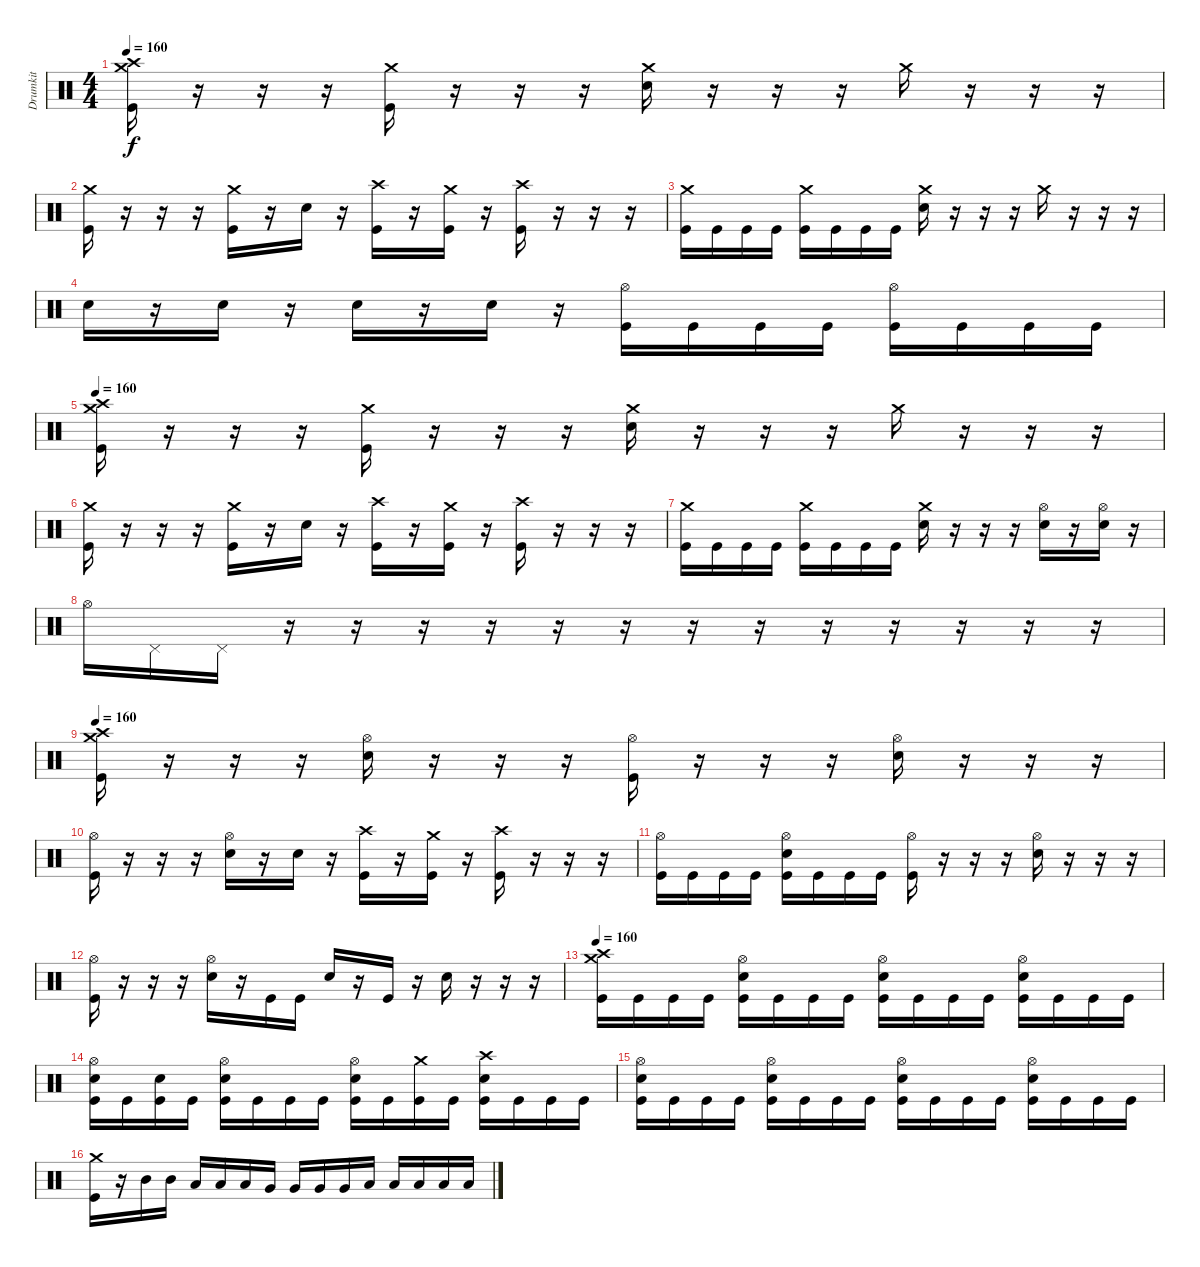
\track ("Drumkit" "Drumkit") {instrument percussion}
\staff {score}
\articulation defaults
\ts (4 4)
\tempo 160
\clef neutral
\ks c
("Crash medium (hit)" "Crash high (hit)" "Kick (hit)").16{dy f} r.16 r.16 r.16 ("Crash medium (hit)" "Kick (hit)").16 r.16 r.16 r.16 ("Crash medium (hit)" "Snare (hit) 2").16 r.16 r.16 r.16 "Crash medium (hit)".16 r.16 r.16 r.16 |
("Crash medium (hit)" "Kick (hit)").16 r.16 r.16 r.16 ("Crash medium (hit)" "Kick (hit)").16 r.16 "Snare (hit) 2".16 r.16 ("Crash high (hit)" "Kick (hit)").16 r.16 ("Crash medium (hit)" "Kick (hit)").16 r.16 ("Crash high (hit)" "Kick (hit)").16 r.16 r.16 r.16 |
("Crash medium (hit)" "Kick (hit)").16 "Kick (hit)".16 "Kick (hit)".16 "Kick (hit)".16 ("Crash medium (hit)" "Kick (hit)").16 "Kick (hit)".16 "Kick (hit)".16 "Kick (hit)".16 ("Crash medium (hit)" "Snare (hit) 2").16 r.16 r.16 r.16 "Crash medium (hit)".16 r.16 r.16 r.16 |
"Snare (hit) 2".16 r.16 "Snare (hit) 2".16 r.16 "Snare (hit) 2".16 r.16 "Snare (hit) 2".16 r.16 ("Hi-Hat (open)" "Kick (hit)").16 "Kick (hit)".16 "Kick (hit)".16 "Kick (hit)".16 ("Hi-Hat (open)" "Kick (hit)").16 "Kick (hit)".16 "Kick (hit)".16 "Kick (hit)".16 |
\tempo 160
("Crash medium (hit)" "Crash high (hit)" "Kick (hit)").16 r.16 r.16 r.16 ("Crash medium (hit)" "Kick (hit)").16 r.16 r.16 r.16 ("Crash medium (hit)" "Snare (hit) 2").16 r.16 r.16 r.16 "Crash medium (hit)".16 r.16 r.16 r.16 |
("Crash medium (hit)" "Kick (hit)").16 r.16 r.16 r.16 ("Crash medium (hit)" "Kick (hit)").16 r.16 "Snare (hit) 2".16 r.16 ("Crash high (hit)" "Kick (hit)").16 r.16 ("Crash medium (hit)" "Kick (hit)").16 r.16 ("Crash high (hit)" "Kick (hit)").16 r.16 r.16 r.16 |
("Crash medium (hit)" "Kick (hit)").16 "Kick (hit)".16 "Kick (hit)".16 "Kick (hit)".16 ("Crash medium (hit)" "Kick (hit)").16 "Kick (hit)".16 "Kick (hit)".16 "Kick (hit)".16 ("Crash medium (hit)" "Snare (hit) 2").16 r.16 r.16 r.16 ("Hi-Hat (open)" "Snare (hit) 2").16 r.16 ("Hi-Hat (open)" "Snare (hit) 2").16 r.16 |
"Hi-Hat (open)".16 "Pedal Hi-Hat (hit)".16 "Pedal Hi-Hat (hit)".16 r.16 r.16 r.16 r.16 r.16 r.16 r.16 r.16 r.16 r.16 r.16 r.16 r.16 |
\tempo 160
("Crash medium (hit)" "Crash high (hit)" "Kick (hit)").16 r.16 r.16 r.16 ("Hi-Hat (open)" "Snare (hit) 2").16 r.16 r.16 r.16 ("Hi-Hat (open)" "Kick (hit)").16 r.16 r.16 r.16 ("Hi-Hat (open)" "Snare (hit) 2").16 r.16 r.16 r.16 |
("Hi-Hat (open)" "Kick (hit)").16 r.16 r.16 r.16 ("Hi-Hat (open)" "Snare (hit) 2").16 r.16 "Snare (hit) 2".16 r.16 ("Crash high (hit)" "Kick (hit)").16 r.16 ("Crash medium (hit)" "Kick (hit)").16 r.16 ("Crash high (hit)" "Kick (hit)").16 r.16 r.16 r.16 |
("Hi-Hat (open)" "Kick (hit)").16 "Kick (hit)".16 "Kick (hit)".16 "Kick (hit)".16 ("Hi-Hat (open)" "Snare (hit) 2" "Kick (hit)").16 "Kick (hit)".16 "Kick (hit)".16 "Kick (hit)".16 ("Hi-Hat (open)" "Kick (hit)").16 r.16 r.16 r.16 ("Hi-Hat (open)" "Snare (hit) 2").16 r.16 r.16 r.16 |
("Hi-Hat (open)" "Kick (hit)").16 r.16 r.16 r.16 ("Hi-Hat (open)" "Snare (hit) 2").16 r.16 "Kick (hit)".16 "Kick (hit)".16 "Snare (hit) 2".16 r.16 "Kick (hit)".16 r.16 "Snare (hit) 2".16 r.16 r.16 r.16 |
\tempo 160
("Crash medium (hit)" "Crash high (hit)" "Kick (hit)").16 "Kick (hit)".16 "Kick (hit)".16 "Kick (hit)".16 ("Hi-Hat (open)" "Snare (hit) 2" "Kick (hit)").16 "Kick (hit)".16 "Kick (hit)".16 "Kick (hit)".16 ("Hi-Hat (open)" "Snare (hit) 2" "Kick (hit)").16 "Kick (hit)".16 "Kick (hit)".16 "Kick (hit)".16 ("Hi-Hat (open)" "Snare (hit) 2" "Kick (hit)").16 "Kick (hit)".16 "Kick (hit)".16 "Kick (hit)".16 |
("Hi-Hat (open)" "Snare (hit) 2" "Kick (hit)").16 "Kick (hit)".16 ("Snare (hit) 2" "Kick (hit)").16 "Kick (hit)".16 ("Hi-Hat (open)" "Snare (hit) 2" "Kick (hit)").16 "Kick (hit)".16 "Kick (hit)".16 "Kick (hit)".16 ("Hi-Hat (open)" "Snare (hit) 2" "Kick (hit)").16 "Kick (hit)".16 ("Crash medium (hit)" "Kick (hit)").16 "Kick (hit)".16 ("Crash high (hit)" "Snare (hit) 2" "Kick (hit)").16 "Kick (hit)".16 "Kick (hit)".16 "Kick (hit)".16 |
("Hi-Hat (open)" "Snare (hit) 2" "Kick (hit)").16 "Kick (hit)".16 "Kick (hit)".16 "Kick (hit)".16 ("Hi-Hat (open)" "Snare (hit) 2" "Kick (hit)").16 "Kick (hit)".16 "Kick (hit)".16 "Kick (hit)".16 ("Hi-Hat (open)" "Snare (hit) 2" "Kick (hit)").16 "Kick (hit)".16 "Kick (hit)".16 "Kick (hit)".16 ("Hi-Hat (open)" "Snare (hit) 2" "Kick (hit)").16 "Kick (hit)".16 "Kick (hit)".16 "Kick (hit)".16 |
("Crash medium (hit)" "Kick (hit)").16 r.16 "Mid Tom (hit)".16 "Mid Tom (hit)".16 "Low Tom (hit)".16 "Low Tom (hit)".16 "Low Tom (hit)".16 "Very Low Tom (hit)".16 "Very Low Tom (hit)".16 "Very Low Tom (hit)".16 "Very Low Tom (hit)".16 "Low Floor Tom (hit)".16 "Low Floor Tom (hit)".16 "Low Floor Tom (hit)".16 "Low Floor Tom (hit)".16 "Low Floor Tom (hit)".16
